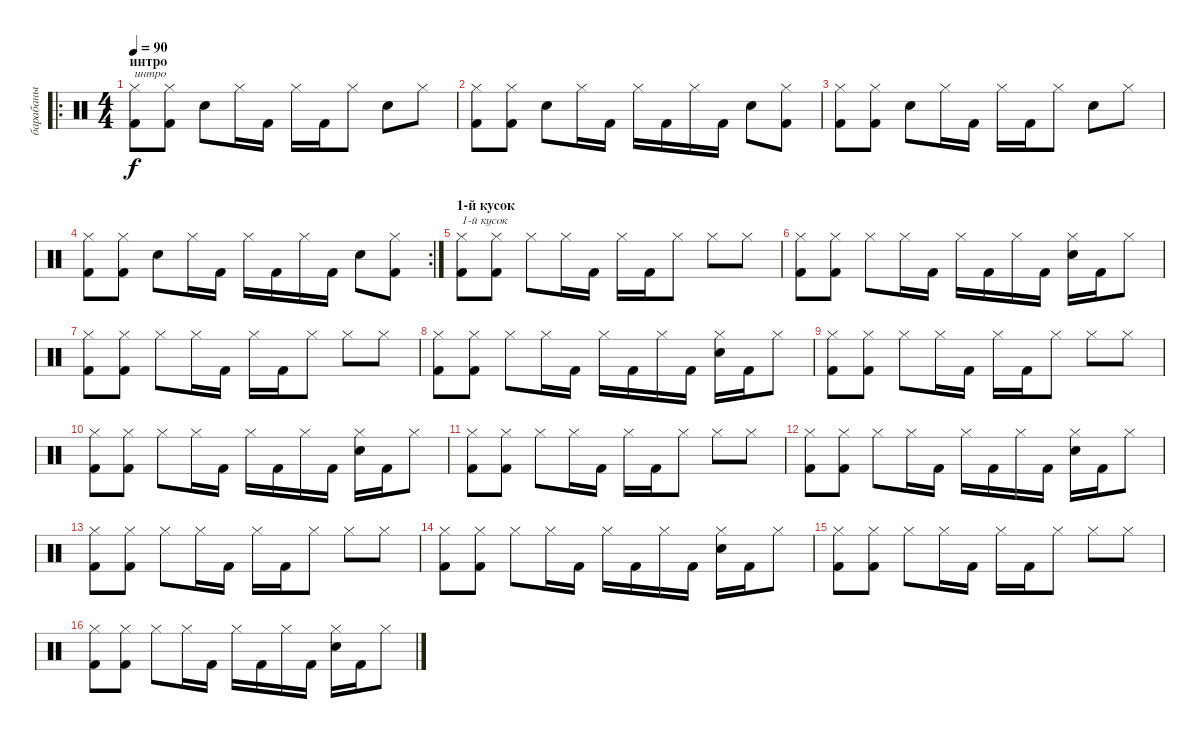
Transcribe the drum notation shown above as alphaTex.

\track ("барабаны" "барабаны") {instrument percussion}
\staff {score}
\articulation defaults
\ro
\ts (4 4)
\section ("" "интро")
\tempo 90
\clef neutral
\ks c
("Hi-Hat (closed)" "Kick (hit) 2").8{txt "интро" dy f} ("Hi-Hat (closed)" "Kick (hit) 2").8 "Electric Snare (hit)".8 "Hi-Hat (closed)".16 "Kick (hit) 2".16 "Hi-Hat (closed)".16 "Kick (hit) 2".16 "Hi-Hat (closed)".8 "Electric Snare (hit)".8 "Hi-Hat (closed)".8 |
("Hi-Hat (closed)" "Kick (hit) 2").8 ("Hi-Hat (closed)" "Kick (hit) 2").8 "Electric Snare (hit)".8 "Hi-Hat (closed)".16 "Kick (hit) 2".16 "Hi-Hat (closed)".16 "Kick (hit) 2".16 "Hi-Hat (closed)".16 "Kick (hit) 2".16 "Electric Snare (hit)".8 ("Hi-Hat (closed)" "Kick (hit) 2").8 |
("Hi-Hat (closed)" "Kick (hit) 2").8 ("Hi-Hat (closed)" "Kick (hit) 2").8 "Electric Snare (hit)".8 "Hi-Hat (closed)".16 "Kick (hit) 2".16 "Hi-Hat (closed)".16 "Kick (hit) 2".16 "Hi-Hat (closed)".8 "Electric Snare (hit)".8 "Hi-Hat (closed)".8 |
\rc 2
("Hi-Hat (closed)" "Kick (hit) 2").8 ("Hi-Hat (closed)" "Kick (hit) 2").8 "Electric Snare (hit)".8 "Hi-Hat (closed)".16 "Kick (hit) 2".16 "Hi-Hat (closed)".16 "Kick (hit) 2".16 "Hi-Hat (closed)".16 "Kick (hit) 2".16 "Electric Snare (hit)".8 ("Hi-Hat (closed)" "Kick (hit) 2").8 |
\section ("" "1-й кусок")
("Hi-Hat (closed)" "Kick (hit) 2").8{txt "1-й кусок"} ("Hi-Hat (closed)" "Kick (hit) 2").8 "Hi-Hat (closed)".8 "Hi-Hat (closed)".16 "Kick (hit) 2".16 "Hi-Hat (closed)".16 "Kick (hit) 2".16 "Hi-Hat (closed)".8 "Hi-Hat (closed)".8 "Hi-Hat (closed)".8 |
("Hi-Hat (closed)" "Kick (hit) 2").8 ("Hi-Hat (closed)" "Kick (hit) 2").8 "Hi-Hat (closed)".8 "Hi-Hat (closed)".16 "Kick (hit) 2".16 "Hi-Hat (closed)".16 "Kick (hit) 2".16 "Hi-Hat (closed)".16 "Kick (hit) 2".16 ("Hi-Hat (closed)" "Electric Snare (hit)").16 "Kick (hit) 2".16 "Hi-Hat (closed)".8 |
("Hi-Hat (closed)" "Kick (hit) 2").8 ("Hi-Hat (closed)" "Kick (hit) 2").8 "Hi-Hat (closed)".8 "Hi-Hat (closed)".16 "Kick (hit) 2".16 "Hi-Hat (closed)".16 "Kick (hit) 2".16 "Hi-Hat (closed)".8 "Hi-Hat (closed)".8 "Hi-Hat (closed)".8 |
("Hi-Hat (closed)" "Kick (hit) 2").8 ("Hi-Hat (closed)" "Kick (hit) 2").8 "Hi-Hat (closed)".8 "Hi-Hat (closed)".16 "Kick (hit) 2".16 "Hi-Hat (closed)".16 "Kick (hit) 2".16 "Hi-Hat (closed)".16 "Kick (hit) 2".16 ("Hi-Hat (closed)" "Electric Snare (hit)").16 "Kick (hit) 2".16 "Hi-Hat (closed)".8 |
("Hi-Hat (closed)" "Kick (hit) 2").8 ("Hi-Hat (closed)" "Kick (hit) 2").8 "Hi-Hat (closed)".8 "Hi-Hat (closed)".16 "Kick (hit) 2".16 "Hi-Hat (closed)".16 "Kick (hit) 2".16 "Hi-Hat (closed)".8 "Hi-Hat (closed)".8 "Hi-Hat (closed)".8 |
("Hi-Hat (closed)" "Kick (hit) 2").8 ("Hi-Hat (closed)" "Kick (hit) 2").8 "Hi-Hat (closed)".8 "Hi-Hat (closed)".16 "Kick (hit) 2".16 "Hi-Hat (closed)".16 "Kick (hit) 2".16 "Hi-Hat (closed)".16 "Kick (hit) 2".16 ("Hi-Hat (closed)" "Electric Snare (hit)").16 "Kick (hit) 2".16 "Hi-Hat (closed)".8 |
("Hi-Hat (closed)" "Kick (hit) 2").8 ("Hi-Hat (closed)" "Kick (hit) 2").8 "Hi-Hat (closed)".8 "Hi-Hat (closed)".16 "Kick (hit) 2".16 "Hi-Hat (closed)".16 "Kick (hit) 2".16 "Hi-Hat (closed)".8 "Hi-Hat (closed)".8 "Hi-Hat (closed)".8 |
("Hi-Hat (closed)" "Kick (hit) 2").8 ("Hi-Hat (closed)" "Kick (hit) 2").8 "Hi-Hat (closed)".8 "Hi-Hat (closed)".16 "Kick (hit) 2".16 "Hi-Hat (closed)".16 "Kick (hit) 2".16 "Hi-Hat (closed)".16 "Kick (hit) 2".16 ("Hi-Hat (closed)" "Electric Snare (hit)").16 "Kick (hit) 2".16 "Hi-Hat (closed)".8 |
("Hi-Hat (closed)" "Kick (hit) 2").8 ("Hi-Hat (closed)" "Kick (hit) 2").8 "Hi-Hat (closed)".8 "Hi-Hat (closed)".16 "Kick (hit) 2".16 "Hi-Hat (closed)".16 "Kick (hit) 2".16 "Hi-Hat (closed)".8 "Hi-Hat (closed)".8 "Hi-Hat (closed)".8 |
("Hi-Hat (closed)" "Kick (hit) 2").8 ("Hi-Hat (closed)" "Kick (hit) 2").8 "Hi-Hat (closed)".8 "Hi-Hat (closed)".16 "Kick (hit) 2".16 "Hi-Hat (closed)".16 "Kick (hit) 2".16 "Hi-Hat (closed)".16 "Kick (hit) 2".16 ("Hi-Hat (closed)" "Electric Snare (hit)").16 "Kick (hit) 2".16 "Hi-Hat (closed)".8 |
("Hi-Hat (closed)" "Kick (hit) 2").8 ("Hi-Hat (closed)" "Kick (hit) 2").8 "Hi-Hat (closed)".8 "Hi-Hat (closed)".16 "Kick (hit) 2".16 "Hi-Hat (closed)".16 "Kick (hit) 2".16 "Hi-Hat (closed)".8 "Hi-Hat (closed)".8 "Hi-Hat (closed)".8 |
("Hi-Hat (closed)" "Kick (hit) 2").8 ("Hi-Hat (closed)" "Kick (hit) 2").8 "Hi-Hat (closed)".8 "Hi-Hat (closed)".16 "Kick (hit) 2".16 "Hi-Hat (closed)".16 "Kick (hit) 2".16 "Hi-Hat (closed)".16 "Kick (hit) 2".16 ("Hi-Hat (closed)" "Electric Snare (hit)").16 "Kick (hit) 2".16 "Hi-Hat (closed)".8
